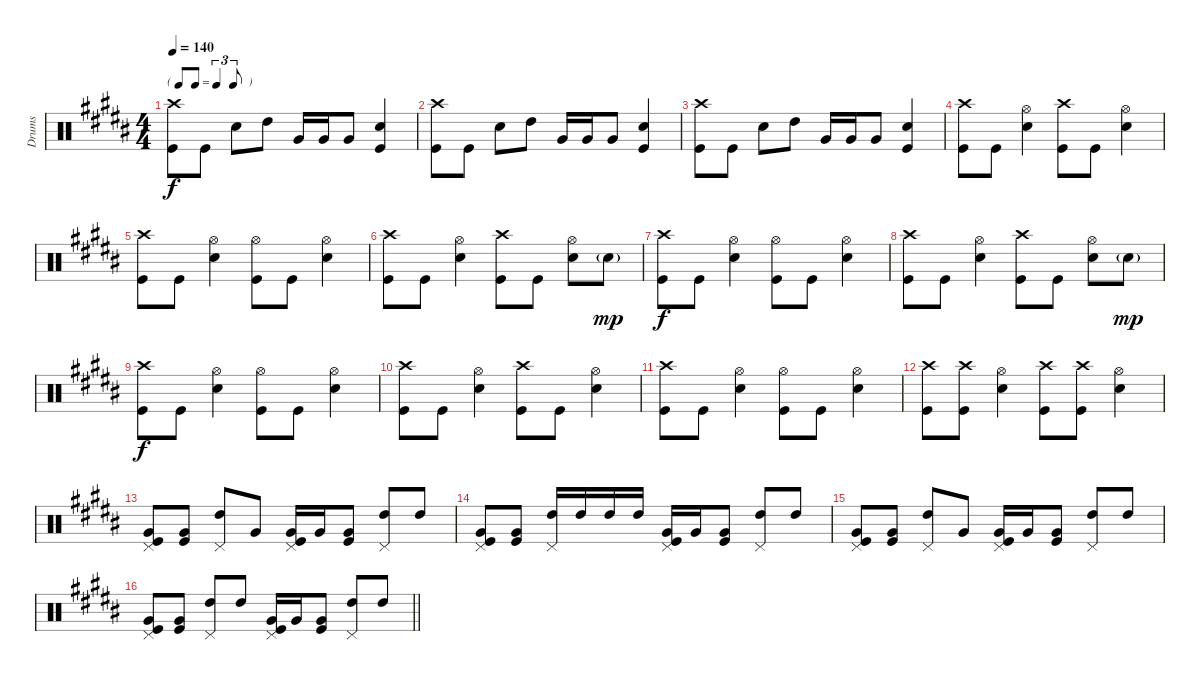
\track ("Drums" "Drums") {instrument percussion}
\staff {score}
\articulation defaults
\ts (4 4)
\tf triplet8th
\tempo 140
\clef neutral
\ks b
("Kick (hit)" "Crash high (hit)").8{dy f} "Kick (hit)".8 "Snare (hit) 2".8 "High Tom (hit)".8 "Very Low Tom (hit)".16 "Very Low Tom (hit)".16 "Very Low Tom (hit)".8 ("Kick (hit)" "Snare (hit) 2").4 |
("Kick (hit)" "Crash high (hit)").8 "Kick (hit)".8 "Snare (hit) 2".8 "High Tom (hit)".8 "Very Low Tom (hit)".16 "Very Low Tom (hit)".16 "Very Low Tom (hit)".8 ("Kick (hit)" "Snare (hit) 2").4 |
("Kick (hit)" "Crash high (hit)").8 "Kick (hit)".8 "Snare (hit) 2".8 "High Tom (hit)".8 "Very Low Tom (hit)".16 "Very Low Tom (hit)".16 "Very Low Tom (hit)".8 ("Kick (hit)" "Snare (hit) 2").4 |
("Kick (hit)" "Crash high (hit)").8 "Kick (hit)".8 ("Hi-Hat (open)" "Snare (hit) 2").4 ("Kick (hit)" "Crash high (hit)").8 "Kick (hit)".8 ("Hi-Hat (open)" "Snare (hit) 2").4 |
("Kick (hit)" "Crash high (hit)").8 "Kick (hit)".8 ("Snare (hit) 2" "Hi-Hat (open)").4 ("Kick (hit)" "Hi-Hat (open)").8 "Kick (hit)".8 ("Snare (hit) 2" "Hi-Hat (open)").4 |
("Kick (hit)" "Crash high (hit)").8 "Kick (hit)".8 ("Snare (hit) 2" "Hi-Hat (open)").4 ("Kick (hit)" "Crash high (hit)").8 "Kick (hit)".8 ("Snare (hit) 2" "Hi-Hat (open)").8 "Snare (hit) 2"{g}.8{dy mp} |
("Kick (hit)" "Crash high (hit)").8{dy f} "Kick (hit)".8 ("Snare (hit) 2" "Hi-Hat (open)").4 ("Kick (hit)" "Hi-Hat (open)").8 "Kick (hit)".8 ("Snare (hit) 2" "Hi-Hat (open)").4 |
("Kick (hit)" "Crash high (hit)").8 "Kick (hit)".8 ("Snare (hit) 2" "Hi-Hat (open)").4 ("Kick (hit)" "Crash high (hit)").8 "Kick (hit)".8 ("Snare (hit) 2" "Hi-Hat (open)").8 "Snare (hit) 2"{g}.8{dy mp} |
("Kick (hit)" "Crash high (hit)").8{dy f} "Kick (hit)".8 ("Snare (hit) 2" "Hi-Hat (open)").4 ("Kick (hit)" "Hi-Hat (open)").8 "Kick (hit)".8 ("Snare (hit) 2" "Hi-Hat (open)").4 |
("Kick (hit)" "Crash high (hit)").8 "Kick (hit)".8 ("Snare (hit) 2" "Hi-Hat (open)").4 ("Kick (hit)" "Crash high (hit)").8 "Kick (hit)".8 ("Snare (hit) 2" "Hi-Hat (open)").4 |
("Kick (hit)" "Crash high (hit)").8 "Kick (hit)".8 ("Snare (hit) 2" "Hi-Hat (open)").4 ("Kick (hit)" "Hi-Hat (open)").8 "Kick (hit)".8 ("Snare (hit) 2" "Hi-Hat (open)").4 |
("Kick (hit)" "Crash high (hit)").8 ("Kick (hit)" "Crash high (hit)").8 ("Snare (hit) 2" "Hi-Hat (open)").4 ("Kick (hit)" "Crash high (hit)").8 ("Kick (hit)" "Crash high (hit)").8 ("Snare (hit) 2" "Hi-Hat (open)").4 |
("Kick (hit)" "Very Low Tom (hit)" "Pedal Hi-Hat (hit)").8 ("Kick (hit)" "Very Low Tom (hit)").8 ("High Tom (hit)" "Pedal Hi-Hat (hit)").8 "Very Low Tom (hit)".8 ("Very Low Tom (hit)" "Kick (hit)" "Pedal Hi-Hat (hit)").16 "Very Low Tom (hit)".16 ("Very Low Tom (hit)" "Kick (hit)").8 ("High Tom (hit)" "Pedal Hi-Hat (hit)").8 "High Tom (hit)".8 |
("Kick (hit)" "Very Low Tom (hit)" "Pedal Hi-Hat (hit)").8 ("Kick (hit)" "Very Low Tom (hit)").8 ("High Tom (hit)" "Pedal Hi-Hat (hit)").16 "High Tom (hit)".16 "High Tom (hit)".16 "High Tom (hit)".16 ("Very Low Tom (hit)" "Kick (hit)" "Pedal Hi-Hat (hit)").16 "Very Low Tom (hit)".16 ("Very Low Tom (hit)" "Kick (hit)").8 ("High Tom (hit)" "Pedal Hi-Hat (hit)").8 "High Tom (hit)".8 |
("Kick (hit)" "Very Low Tom (hit)" "Pedal Hi-Hat (hit)").8 ("Kick (hit)" "Very Low Tom (hit)").8 ("High Tom (hit)" "Pedal Hi-Hat (hit)").8 "Very Low Tom (hit)".8 ("Very Low Tom (hit)" "Kick (hit)" "Pedal Hi-Hat (hit)").16 "Very Low Tom (hit)".16 ("Very Low Tom (hit)" "Kick (hit)").8 ("High Tom (hit)" "Pedal Hi-Hat (hit)").8 "High Tom (hit)".8 |
\barLineRight lightlight
("Kick (hit)" "Very Low Tom (hit)" "Pedal Hi-Hat (hit)").8 ("Kick (hit)" "Very Low Tom (hit)").8 ("High Tom (hit)" "Pedal Hi-Hat (hit)").8 "High Tom (hit)".8 ("Very Low Tom (hit)" "Kick (hit)" "Pedal Hi-Hat (hit)").16 "Very Low Tom (hit)".16 ("Very Low Tom (hit)" "Kick (hit)").8 ("High Tom (hit)" "Pedal Hi-Hat (hit)").8 "High Tom (hit)".8
